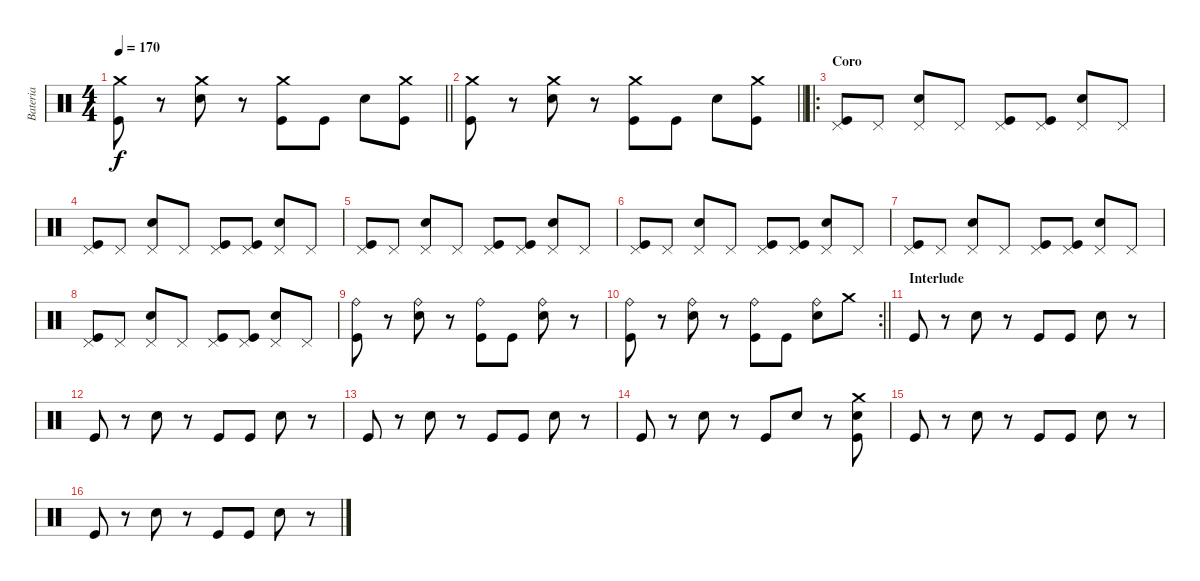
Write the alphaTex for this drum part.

\track ("Bateria" "Bateria") {instrument percussion}
\staff {score}
\articulation defaults
\ts (4 4)
\tempo 170
\clef neutral
\barLineRight lightlight
\ks c
("Crash medium (hit)" "Kick (hit)").8{dy f} r.8 ("Crash medium (hit)" "Electric Snare (hit)").8 r.8 ("Crash medium (hit)" "Kick (hit)").8 "Kick (hit)".8 "Electric Snare (hit)".8 ("Crash medium (hit)" "Kick (hit)").8 |
\barLineRight lightlight
("Crash medium (hit)" "Kick (hit)").8 r.8 ("Crash medium (hit)" "Electric Snare (hit)").8 r.8 ("Crash medium (hit)" "Kick (hit)").8 "Kick (hit)".8 "Electric Snare (hit)".8 ("Crash medium (hit)" "Kick (hit)").8 |
\ro
\section ("" "Coro")
("Pedal Hi-Hat (hit)" "Kick (hit)").8 "Pedal Hi-Hat (hit)".8 ("Pedal Hi-Hat (hit)" "Electric Snare (hit)").8 "Pedal Hi-Hat (hit)".8 ("Pedal Hi-Hat (hit)" "Kick (hit)").8 ("Pedal Hi-Hat (hit)" "Kick (hit)").8 ("Pedal Hi-Hat (hit)" "Electric Snare (hit)").8 "Pedal Hi-Hat (hit)".8 |
("Pedal Hi-Hat (hit)" "Kick (hit)").8 "Pedal Hi-Hat (hit)".8 ("Pedal Hi-Hat (hit)" "Electric Snare (hit)").8 "Pedal Hi-Hat (hit)".8 ("Pedal Hi-Hat (hit)" "Kick (hit)").8 ("Pedal Hi-Hat (hit)" "Kick (hit)").8 ("Pedal Hi-Hat (hit)" "Electric Snare (hit)").8 "Pedal Hi-Hat (hit)".8 |
("Pedal Hi-Hat (hit)" "Kick (hit)").8 "Pedal Hi-Hat (hit)".8 ("Pedal Hi-Hat (hit)" "Electric Snare (hit)").8 "Pedal Hi-Hat (hit)".8 ("Pedal Hi-Hat (hit)" "Kick (hit)").8 ("Pedal Hi-Hat (hit)" "Kick (hit)").8 ("Pedal Hi-Hat (hit)" "Electric Snare (hit)").8 "Pedal Hi-Hat (hit)".8 |
("Pedal Hi-Hat (hit)" "Kick (hit)").8 "Pedal Hi-Hat (hit)".8 ("Pedal Hi-Hat (hit)" "Electric Snare (hit)").8 "Pedal Hi-Hat (hit)".8 ("Pedal Hi-Hat (hit)" "Kick (hit)").8 ("Pedal Hi-Hat (hit)" "Kick (hit)").8 ("Pedal Hi-Hat (hit)" "Electric Snare (hit)").8 "Pedal Hi-Hat (hit)".8 |
("Pedal Hi-Hat (hit)" "Kick (hit)").8 "Pedal Hi-Hat (hit)".8 ("Pedal Hi-Hat (hit)" "Electric Snare (hit)").8 "Pedal Hi-Hat (hit)".8 ("Pedal Hi-Hat (hit)" "Kick (hit)").8 ("Pedal Hi-Hat (hit)" "Kick (hit)").8 ("Pedal Hi-Hat (hit)" "Electric Snare (hit)").8 "Pedal Hi-Hat (hit)".8 |
("Pedal Hi-Hat (hit)" "Kick (hit)").8 "Pedal Hi-Hat (hit)".8 ("Pedal Hi-Hat (hit)" "Electric Snare (hit)").8 "Pedal Hi-Hat (hit)".8 ("Pedal Hi-Hat (hit)" "Kick (hit)").8 ("Pedal Hi-Hat (hit)" "Kick (hit)").8 ("Pedal Hi-Hat (hit)" "Electric Snare (hit)").8 "Pedal Hi-Hat (hit)".8 |
("Ride (bell)" "Kick (hit)").8 r.8 ("Ride (bell)" "Electric Snare (hit)").8 r.8 ("Ride (bell)" "Kick (hit)").8 "Kick (hit)".8 ("Ride (bell)" "Electric Snare (hit)").8 r.8 |
\rc 2
\barLineRight lightlight
("Ride (bell)" "Kick (hit)").8 r.8 ("Ride (bell)" "Electric Snare (hit)").8 r.8 ("Ride (bell)" "Kick (hit)").8 "Kick (hit)".8 ("Ride (bell)" "Electric Snare (hit)").8 "Crash medium (hit)".8 |
\section ("" "Interlude")
"Kick (hit)".8 r.8 "Electric Snare (hit)".8 r.8 "Kick (hit)".8 "Kick (hit)".8 "Electric Snare (hit)".8 r.8 |
"Kick (hit)".8 r.8 "Electric Snare (hit)".8 r.8 "Kick (hit)".8 "Kick (hit)".8 "Electric Snare (hit)".8 r.8 |
"Kick (hit)".8 r.8 "Electric Snare (hit)".8 r.8 "Kick (hit)".8 "Kick (hit)".8 "Electric Snare (hit)".8 r.8 |
"Kick (hit)".8 r.8 "Electric Snare (hit)".8 r.8 "Kick (hit)".8 "Electric Snare (hit)".8 r.8 ("Crash medium (hit)" "Electric Snare (hit)" "Kick (hit)").8 |
"Kick (hit)".8 r.8 "Electric Snare (hit)".8 r.8 "Kick (hit)".8 "Kick (hit)".8 "Electric Snare (hit)".8 r.8 |
"Kick (hit)".8 r.8 "Electric Snare (hit)".8 r.8 "Kick (hit)".8 "Kick (hit)".8 "Electric Snare (hit)".8 r.8
